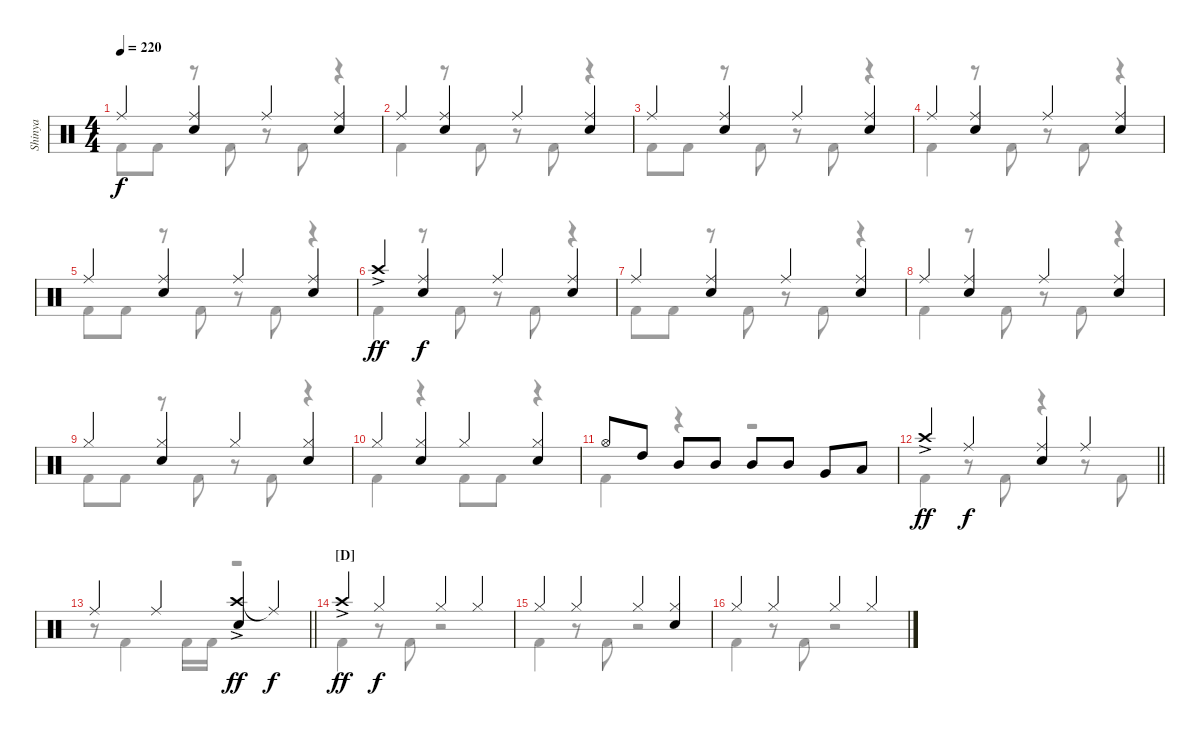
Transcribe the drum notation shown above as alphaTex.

\track ("Shinya" "Shinya") {instrument percussion}
\staff {score}
\articulation defaults
\voice
\ts (4 4)
\tempo 220
\clef neutral
\ks c "Ride (middle)".4{dy f}
("Ride (middle)" "Snare (hit) 2").4 "Ride (middle)".4 ("Ride (middle)" "Snare (hit) 2").4 |
"Ride (middle)".4 ("Ride (middle)" "Snare (hit) 2").4 "Ride (middle)".4 ("Ride (middle)" "Snare (hit) 2").4 |
"Ride (middle)".4 ("Ride (middle)" "Snare (hit) 2").4 "Ride (middle)".4 ("Ride (middle)" "Snare (hit) 2").4 |
"Ride (middle)".4 ("Ride (middle)" "Snare (hit) 2").4 "Ride (middle)".4 ("Ride (middle)" "Snare (hit) 2").4 |
"Ride (middle)".4 ("Ride (middle)" "Snare (hit) 2").4 "Ride (middle)".4 ("Ride (middle)" "Snare (hit) 2").4 |
"Crash high (hit)"{ac}.4{dy ff} ("Ride (middle)" "Snare (hit) 2").4{dy f} "Ride (middle)".4 ("Ride (middle)" "Snare (hit) 2").4 |
"Ride (middle)".4 ("Ride (middle)" "Snare (hit) 2").4 "Ride (middle)".4 ("Ride (middle)" "Snare (hit) 2").4 |
"Ride (middle)".4 ("Ride (middle)" "Snare (hit) 2").4 "Ride (middle)".4 ("Ride (middle)" "Snare (hit) 2").4 |
"Hi-Hat (closed)".4 ("Hi-Hat (closed)" "Snare (hit) 2").4 "Hi-Hat (closed)".4 ("Hi-Hat (closed)" "Snare (hit) 2").4 |
"Hi-Hat (closed)".4 ("Hi-Hat (closed)" "Snare (hit) 2").4 "Hi-Hat (closed)".4 ("Hi-Hat (closed)" "Snare (hit) 2").4 |
"Hi-Hat (open)".8 "High Tom (hit)".8 "Mid Tom (hit)".8 "Mid Tom (hit)".8 "Mid Tom (hit)".8 "Mid Tom (hit)".8 "Very Low Tom (hit)".8 "Low Tom (hit)".8 |
\barLineRight lightlight "Crash high (hit)"{ac}.4{dy ff} "Ride (middle)".4{dy f}
("Ride (middle)" "Snare (hit) 2").4 "Ride (middle)".4 |
\barLineRight lightlight "Ride (middle)".4 "Ride (middle)".4
("Crash high (hit)"{ac} "Snare (hit) 2").4{dy ff} "Ride (middle)"{t}.4{dy f} |
\section ("" "[D]")
"Crash high (hit)"{ac}.4{dy ff} "Hi-Hat (closed)".4{dy f} "Hi-Hat (closed)".4 "Hi-Hat (closed)".4 |
"Hi-Hat (closed)".4 "Hi-Hat (closed)".4 "Hi-Hat (closed)".4 ("Hi-Hat (closed)" "Snare (hit) 2").4 |
"Hi-Hat (closed)".4 "Hi-Hat (closed)".4 "Hi-Hat (closed)".4 "Hi-Hat (closed)".4
\voice
\clef neutral
\ottava regular
\simile none
\ks c "Kick (hit) 2".8{dy f} "Kick (hit) 2".8
r.8 "Kick (hit) 2".8 r.8 "Kick (hit) 2".8 r.4 |
"Kick (hit) 2".4 r.8 "Kick (hit) 2".8 r.8 "Kick (hit) 2".8 r.4 |
"Kick (hit) 2".8 "Kick (hit) 2".8 r.8 "Kick (hit) 2".8 r.8 "Kick (hit) 2".8 r.4 |
"Kick (hit) 2".4 r.8 "Kick (hit) 2".8 r.8 "Kick (hit) 2".8 r.4 |
"Kick (hit) 2".8 "Kick (hit) 2".8 r.8 "Kick (hit) 2".8 r.8 "Kick (hit) 2".8 r.4 |
"Kick (hit) 2".4 r.8 "Kick (hit) 2".8 r.8 "Kick (hit) 2".8 r.4 |
"Kick (hit) 2".8 "Kick (hit) 2".8 r.8 "Kick (hit) 2".8 r.8 "Kick (hit) 2".8 r.4 |
"Kick (hit) 2".4 r.8 "Kick (hit) 2".8 r.8 "Kick (hit) 2".8 r.4 |
"Kick (hit) 2".8 "Kick (hit) 2".8 r.8 "Kick (hit) 2".8 r.8 "Kick (hit) 2".8 r.4 |
"Kick (hit) 2".4 r.4 "Kick (hit) 2".8 "Kick (hit) 2".8 r.4 |
"Kick (hit) 2".4 r.4 r.2 |
\barLineRight lightlight "Kick (hit) 2".4
r.8 "Kick (hit) 2".8 r.4 r.8 "Kick (hit) 2".8 |
\barLineRight lightlight
r.8 "Kick (hit) 2".4 "Kick (hit) 2".16 "Kick (hit) 2".16 r.2 |
"Kick (hit) 2".4 r.8 "Kick (hit) 2".8 r.2 |
"Kick (hit) 2".4 r.8 "Kick (hit) 2".8 r.2 |
"Kick (hit) 2".4 r.8 "Kick (hit) 2".8 r.2
